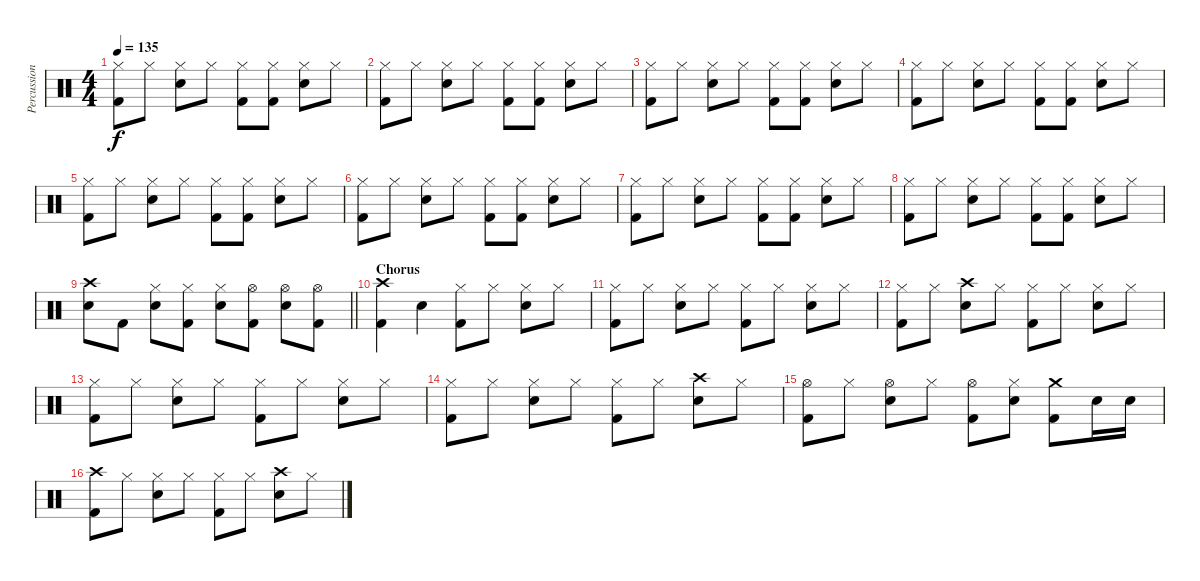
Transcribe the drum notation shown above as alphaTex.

\track ("Percussion" "Percussion") {instrument percussion}
\staff {score}
\articulation defaults
\ts (4 4)
\tempo 135
\clef neutral
\ks c
("Hi-Hat (closed)" "Kick (hit) 2").8{dy f} "Hi-Hat (closed)".8 ("Hi-Hat (closed)" "Electric Snare (hit)").8 "Hi-Hat (closed)".8 ("Hi-Hat (closed)" "Kick (hit) 2").8 ("Hi-Hat (closed)" "Kick (hit) 2").8 ("Hi-Hat (closed)" "Electric Snare (hit)").8 "Hi-Hat (closed)".8 |
("Hi-Hat (closed)" "Kick (hit) 2").8 "Hi-Hat (closed)".8 ("Hi-Hat (closed)" "Electric Snare (hit)").8 "Hi-Hat (closed)".8 ("Hi-Hat (closed)" "Kick (hit) 2").8 ("Hi-Hat (closed)" "Kick (hit) 2").8 ("Hi-Hat (closed)" "Electric Snare (hit)").8 "Hi-Hat (closed)".8 |
("Hi-Hat (closed)" "Kick (hit) 2").8 "Hi-Hat (closed)".8 ("Hi-Hat (closed)" "Electric Snare (hit)").8 "Hi-Hat (closed)".8 ("Hi-Hat (closed)" "Kick (hit) 2").8 ("Hi-Hat (closed)" "Kick (hit) 2").8 ("Hi-Hat (closed)" "Electric Snare (hit)").8 "Hi-Hat (closed)".8 |
("Hi-Hat (closed)" "Kick (hit) 2").8 "Hi-Hat (closed)".8 ("Hi-Hat (closed)" "Electric Snare (hit)").8 "Hi-Hat (closed)".8 ("Hi-Hat (closed)" "Kick (hit) 2").8 ("Hi-Hat (closed)" "Kick (hit) 2").8 ("Hi-Hat (closed)" "Electric Snare (hit)").8 "Hi-Hat (closed)".8 |
("Hi-Hat (closed)" "Kick (hit) 2").8 "Hi-Hat (closed)".8 ("Hi-Hat (closed)" "Electric Snare (hit)").8 "Hi-Hat (closed)".8 ("Hi-Hat (closed)" "Kick (hit) 2").8 ("Hi-Hat (closed)" "Kick (hit) 2").8 ("Hi-Hat (closed)" "Electric Snare (hit)").8 "Hi-Hat (closed)".8 |
("Hi-Hat (closed)" "Kick (hit) 2").8 "Hi-Hat (closed)".8 ("Hi-Hat (closed)" "Electric Snare (hit)").8 "Hi-Hat (closed)".8 ("Hi-Hat (closed)" "Kick (hit) 2").8 ("Hi-Hat (closed)" "Kick (hit) 2").8 ("Hi-Hat (closed)" "Electric Snare (hit)").8 "Hi-Hat (closed)".8 |
("Hi-Hat (closed)" "Kick (hit) 2").8 "Hi-Hat (closed)".8 ("Hi-Hat (closed)" "Electric Snare (hit)").8 "Hi-Hat (closed)".8 ("Hi-Hat (closed)" "Kick (hit) 2").8 ("Hi-Hat (closed)" "Kick (hit) 2").8 ("Hi-Hat (closed)" "Electric Snare (hit)").8 "Hi-Hat (closed)".8 |
("Hi-Hat (closed)" "Kick (hit) 2").8 "Hi-Hat (closed)".8 ("Hi-Hat (closed)" "Electric Snare (hit)").8 "Hi-Hat (closed)".8 ("Hi-Hat (closed)" "Kick (hit) 2").8 ("Hi-Hat (closed)" "Kick (hit) 2").8 ("Hi-Hat (closed)" "Electric Snare (hit)").8 "Hi-Hat (closed)".8 |
\barLineRight lightlight
("Crash high (hit)" "Electric Snare (hit)").8 "Kick (hit) 2".8 ("Hi-Hat (closed)" "Electric Snare (hit)").8 ("Hi-Hat (closed)" "Kick (hit) 2").8 ("Hi-Hat (closed)" "Electric Snare (hit)").8 ("Hi-Hat (open)" "Kick (hit) 2").8 ("Hi-Hat (open)" "Electric Snare (hit)").8 ("Hi-Hat (open)" "Kick (hit) 2").8 |
\section ("" "Chorus")
("Crash high (hit)" "Kick (hit) 2").4 "Electric Snare (hit)".4 ("Hi-Hat (closed)" "Kick (hit) 2").8 "Hi-Hat (closed)".8 ("Hi-Hat (closed)" "Electric Snare (hit)").8 "Hi-Hat (closed)".8 |
("Hi-Hat (closed)" "Kick (hit) 2").8 "Hi-Hat (closed)".8 ("Hi-Hat (closed)" "Electric Snare (hit)").8 "Hi-Hat (closed)".8 ("Hi-Hat (closed)" "Kick (hit) 2").8 "Hi-Hat (closed)".8 ("Hi-Hat (closed)" "Electric Snare (hit)").8 "Hi-Hat (closed)".8 |
("Hi-Hat (closed)" "Kick (hit) 2").8 "Hi-Hat (closed)".8 ("Crash high (hit)" "Electric Snare (hit)").8 "Hi-Hat (closed)".8 ("Hi-Hat (closed)" "Kick (hit) 2").8 "Hi-Hat (closed)".8 ("Hi-Hat (closed)" "Electric Snare (hit)").8 "Hi-Hat (closed)".8 |
("Hi-Hat (closed)" "Kick (hit) 2").8 "Hi-Hat (closed)".8 ("Hi-Hat (closed)" "Electric Snare (hit)").8 "Hi-Hat (closed)".8 ("Hi-Hat (closed)" "Kick (hit) 2").8 "Hi-Hat (closed)".8 ("Hi-Hat (closed)" "Electric Snare (hit)").8 "Hi-Hat (closed)".8 |
("Hi-Hat (closed)" "Kick (hit) 2").8 "Hi-Hat (closed)".8 ("Hi-Hat (closed)" "Electric Snare (hit)").8 "Hi-Hat (closed)".8 ("Hi-Hat (closed)" "Kick (hit) 2").8 "Hi-Hat (closed)".8 ("Crash high (hit)" "Electric Snare (hit)").8 "Hi-Hat (closed)".8 |
("Hi-Hat (open)" "Kick (hit) 2").8 "Hi-Hat (closed)".8 ("Hi-Hat (open)" "Electric Snare (hit)").8 "Hi-Hat (closed)".8 ("Hi-Hat (open)" "Kick (hit) 2").8 ("Hi-Hat (closed)" "Electric Snare (hit)").8 ("Crash medium (hit)" "Kick (hit) 2").8 "Electric Snare (hit)".16 "Electric Snare (hit)".16 |
("Crash high (hit)" "Kick (hit) 2").8 "Hi-Hat (closed)".8 ("Hi-Hat (closed)" "Electric Snare (hit)").8 "Hi-Hat (closed)".8 ("Hi-Hat (closed)" "Kick (hit) 2").8 "Hi-Hat (closed)".8 ("Crash high (hit)" "Electric Snare (hit)").8 "Hi-Hat (closed)".8
